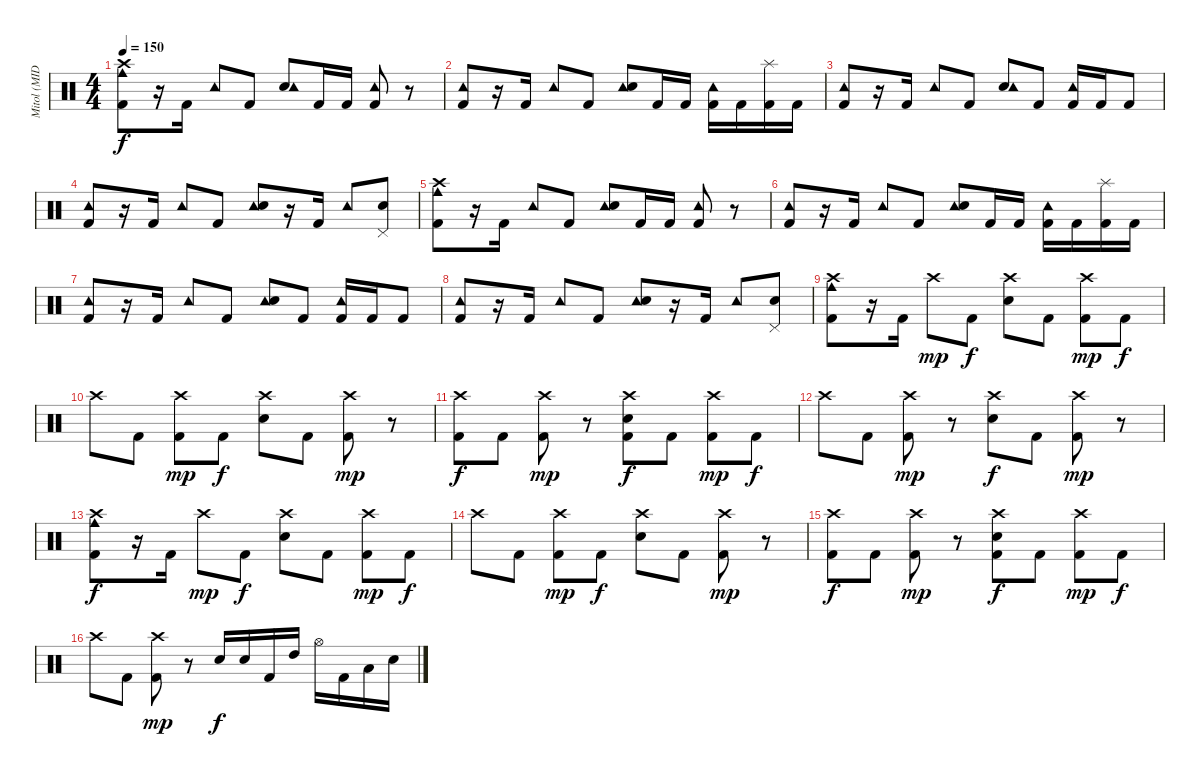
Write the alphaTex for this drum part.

\track ("Mitol (MIDI)" "Mitol (MID") {instrument percussion}
\staff {score}
\articulation defaults
\ts (4 4)
\tempo 150
\clef neutral
\ks c
("Cowbell medium (hit)" "Crash high (hit)" "Kick (hit) 2").8{dy f} r.16 "Kick (hit) 2".16 "Tambourine (hit)".8 "Kick (hit) 2".8 ("Electric Snare (hit)" "Tambourine (hit)").8 "Kick (hit) 2".16 "Kick (hit) 2".16 ("Tambourine (hit)" "Kick (hit) 2").8 r.8 |
("Tambourine (hit)" "Kick (hit) 2").8 r.16 "Kick (hit) 2".16 "Tambourine (hit)".8 "Kick (hit) 2".8 ("Tambourine (hit)" "Electric Snare (hit)").8 "Kick (hit) 2".16 "Kick (hit) 2".16 ("Kick (hit) 2" "Tambourine (hit)").16 "Kick (hit) 2".16 ("Splash (hit)" "Kick (hit) 2").16 "Kick (hit) 2".16 |
("Tambourine (hit)" "Kick (hit) 2").8 r.16 "Kick (hit) 2".16 "Tambourine (hit)".8 "Kick (hit) 2".8 ("Electric Snare (hit)" "Tambourine (hit)").8 "Kick (hit) 2".8 ("Kick (hit) 2" "Tambourine (hit)").16 "Kick (hit) 2".16 "Kick (hit) 2".8 |
("Kick (hit) 2" "Tambourine (hit)").8 r.16 "Kick (hit) 2".16 "Tambourine (hit)".8 "Kick (hit) 2".8 ("Tambourine (hit)" "Electric Snare (hit)").8 r.16 "Kick (hit) 2".16 "Tambourine (hit)".8 ("Electric Snare (hit)" "Pedal Hi-Hat (hit)").8 |
("Cowbell medium (hit)" "Crash high (hit)" "Kick (hit) 2").8 r.16 "Kick (hit) 2".16 "Tambourine (hit)".8 "Kick (hit) 2".8 ("Tambourine (hit)" "Electric Snare (hit)").8 "Kick (hit) 2".16 "Kick (hit) 2".16 ("Tambourine (hit)" "Kick (hit) 2").8 r.8 |
("Tambourine (hit)" "Kick (hit) 2").8 r.16 "Kick (hit) 2".16 "Tambourine (hit)".8 "Kick (hit) 2".8 ("Tambourine (hit)" "Electric Snare (hit)").8 "Kick (hit) 2".16 "Kick (hit) 2".16 ("Tambourine (hit)" "Kick (hit) 2").16 "Kick (hit) 2".16 ("Splash (hit)" "Kick (hit) 2").16 "Kick (hit) 2".16 |
("Tambourine (hit)" "Kick (hit) 2").8 r.16 "Kick (hit) 2".16 "Tambourine (hit)".8 "Kick (hit) 2".8 ("Tambourine (hit)" "Electric Snare (hit)").8 "Kick (hit) 2".8 ("Tambourine (hit)" "Kick (hit) 2").16 "Kick (hit) 2".16 "Kick (hit) 2".8 |
("Tambourine (hit)" "Kick (hit) 2").8 r.16 "Kick (hit) 2".16 "Tambourine (hit)".8 "Kick (hit) 2".8 ("Tambourine (hit)" "Electric Snare (hit)").8 r.16 "Kick (hit) 2".16 "Tambourine (hit)".8 ("Pedal Hi-Hat (hit)" "Electric Snare (hit)").8 |
("Cowbell medium (hit)" "Crash high (hit)" "Kick (hit) 2").8 r.16 "Kick (hit) 2".16 "Crash high (hit)".8{dy mp} "Kick (hit) 2".8{dy f} ("Electric Snare (hit)" "Crash high (hit)").8 "Kick (hit) 2".8 ("Kick (hit) 2" "Crash high (hit)").8{dy mp} "Kick (hit) 2".8{dy f} |
"Crash high (hit)".8 "Kick (hit) 2".8 ("Crash high (hit)" "Kick (hit) 2").8{dy mp} "Kick (hit) 2".8{dy f} ("Crash high (hit)" "Electric Snare (hit)").8 "Kick (hit) 2".8 ("Kick (hit) 2" "Crash high (hit)").8{dy mp} r.8 |
("Crash high (hit)" "Kick (hit) 2").8{dy f} "Kick (hit) 2".8 ("Kick (hit) 2" "Crash high (hit)").8{dy mp} r.8 ("Kick (hit) 2" "Electric Snare (hit)" "Crash high (hit)").8{dy f} "Kick (hit) 2".8 ("Crash high (hit)" "Kick (hit) 2").8{dy mp} "Kick (hit) 2".8{dy f} |
"Crash high (hit)".8 "Kick (hit) 2".8 ("Crash high (hit)" "Kick (hit) 2").8{dy mp} r.8 ("Crash high (hit)" "Electric Snare (hit)").8{dy f} "Kick (hit) 2".8 ("Crash high (hit)" "Kick (hit) 2").8{dy mp} r.8 |
("Kick (hit) 2" "Crash high (hit)" "Cowbell medium (hit)").8{dy f} r.16 "Kick (hit) 2".16 "Crash high (hit)".8{dy mp} "Kick (hit) 2".8{dy f} ("Crash high (hit)" "Electric Snare (hit)").8 "Kick (hit) 2".8 ("Crash high (hit)" "Kick (hit) 2").8{dy mp} "Kick (hit) 2".8{dy f} |
"Crash high (hit)".8 "Kick (hit) 2".8 ("Kick (hit) 2" "Crash high (hit)").8{dy mp} "Kick (hit) 2".8{dy f} ("Crash high (hit)" "Electric Snare (hit)").8 "Kick (hit) 2".8 ("Crash high (hit)" "Kick (hit) 2").8{dy mp} r.8 |
("Crash high (hit)" "Kick (hit) 2").8{dy f} "Kick (hit) 2".8 ("Kick (hit) 2" "Crash high (hit)").8{dy mp} r.8 ("Crash high (hit)" "Electric Snare (hit)" "Kick (hit) 2").8{dy f} "Kick (hit) 2".8 ("Crash high (hit)" "Kick (hit) 2").8{dy mp} "Kick (hit) 2".8{dy f} |
"Crash high (hit)".8 "Kick (hit) 2".8 ("Crash high (hit)" "Kick (hit) 2").8{dy mp} r.8 "Electric Snare (hit)".16{dy f} "Electric Snare (hit)".16 "Kick (hit) 2".16 "High Tom (hit)".16 "Hi-Hat (open)".16 "Kick (hit) 2".16 "Low Tom (hit)".16 "Electric Snare (hit)".16
